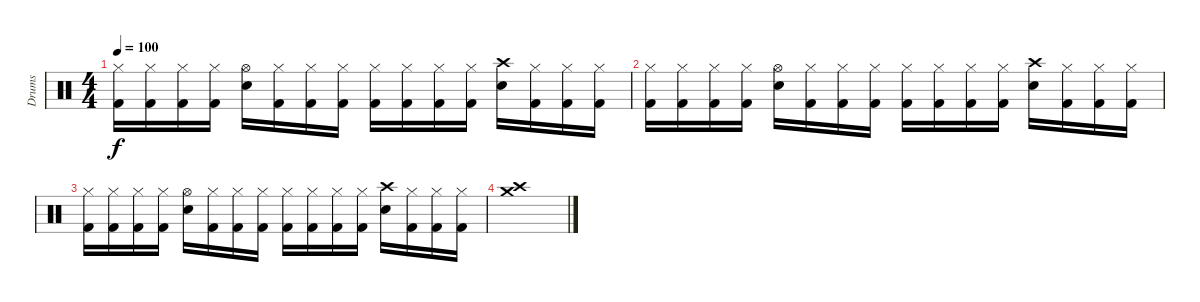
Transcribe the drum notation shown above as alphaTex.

\track ("Drums" "Drums") {instrument percussion}
\staff {score}
\articulation defaults
\ts (4 4)
\tempo 100
\clef neutral
\ks c
("Hi-Hat (closed)" "Kick (hit) 2").16{dy f} ("Hi-Hat (closed)" "Kick (hit) 2").16 ("Hi-Hat (closed)" "Kick (hit) 2").16 ("Hi-Hat (closed)" "Kick (hit) 2").16 ("Hi-Hat (open)" "Electric Snare (hit)").16 ("Hi-Hat (closed)" "Kick (hit) 2").16 ("Hi-Hat (closed)" "Kick (hit) 2").16 ("Hi-Hat (closed)" "Kick (hit) 2").16 ("Hi-Hat (closed)" "Kick (hit) 2").16 ("Hi-Hat (closed)" "Kick (hit) 2").16 ("Hi-Hat (closed)" "Kick (hit) 2").16 ("Hi-Hat (closed)" "Kick (hit) 2").16 ("Crash high (hit)" "Electric Snare (hit)").16 ("Hi-Hat (closed)" "Kick (hit) 2").16 ("Hi-Hat (closed)" "Kick (hit) 2").16 ("Hi-Hat (closed)" "Kick (hit) 2").16 |
("Hi-Hat (closed)" "Kick (hit) 2").16 ("Hi-Hat (closed)" "Kick (hit) 2").16 ("Hi-Hat (closed)" "Kick (hit) 2").16 ("Hi-Hat (closed)" "Kick (hit) 2").16 ("Hi-Hat (open)" "Electric Snare (hit)").16 ("Hi-Hat (closed)" "Kick (hit) 2").16 ("Hi-Hat (closed)" "Kick (hit) 2").16 ("Hi-Hat (closed)" "Kick (hit) 2").16 ("Hi-Hat (closed)" "Kick (hit) 2").16 ("Hi-Hat (closed)" "Kick (hit) 2").16 ("Hi-Hat (closed)" "Kick (hit) 2").16 ("Hi-Hat (closed)" "Kick (hit) 2").16 ("Crash high (hit)" "Electric Snare (hit)").16 ("Hi-Hat (closed)" "Kick (hit) 2").16 ("Hi-Hat (closed)" "Kick (hit) 2").16 ("Hi-Hat (closed)" "Kick (hit) 2").16 |
("Hi-Hat (closed)" "Kick (hit) 2").16 ("Hi-Hat (closed)" "Kick (hit) 2").16 ("Hi-Hat (closed)" "Kick (hit) 2").16 ("Hi-Hat (closed)" "Kick (hit) 2").16 ("Hi-Hat (open)" "Electric Snare (hit)").16 ("Hi-Hat (closed)" "Kick (hit) 2").16 ("Hi-Hat (closed)" "Kick (hit) 2").16 ("Hi-Hat (closed)" "Kick (hit) 2").16 ("Hi-Hat (closed)" "Kick (hit) 2").16 ("Hi-Hat (closed)" "Kick (hit) 2").16 ("Hi-Hat (closed)" "Kick (hit) 2").16 ("Hi-Hat (closed)" "Kick (hit) 2").16 ("Crash high (hit)" "Electric Snare (hit)").16 ("Hi-Hat (closed)" "Kick (hit) 2").16 ("Hi-Hat (closed)" "Kick (hit) 2").16 ("Hi-Hat (closed)" "Kick (hit) 2").16 |
("Crash medium (hit)" "Crash high (hit)").1
